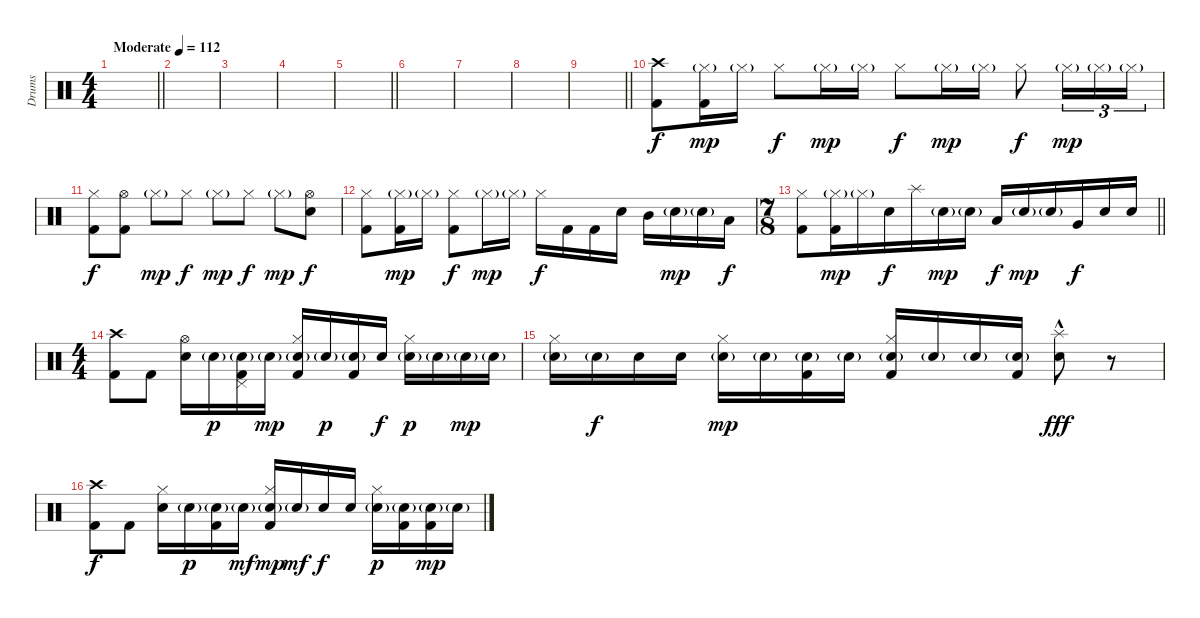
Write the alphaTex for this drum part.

\track ("Drums" "Drums") {instrument percussion}
\staff {score}
\articulation defaults
\ts (4 4)
\tempo (112 "Moderate")
\clef neutral
\barLineRight lightlight
\ks c
|
|
|
|
\barLineRight lightlight
|
|
|
|
\barLineRight lightlight
|
("Crash high (hit)" "Kick (hit) 2").8 ("Hi-Hat (closed)"{g} "Kick (hit) 2").16{dy mp} "Hi-Hat (closed)"{g}.16 "Hi-Hat (closed)".8{dy f} "Hi-Hat (closed)"{g}.16{dy mp} "Hi-Hat (closed)"{g}.16 "Hi-Hat (closed)".8{dy f} "Hi-Hat (closed)"{g}.16{dy mp} "Hi-Hat (closed)"{g}.16 "Hi-Hat (closed)".8{dy f} "Hi-Hat (closed)"{g}.16{tu (3 2) dy mp} "Hi-Hat (closed)"{g}.16{tu (3 2)} "Hi-Hat (closed)"{g}.16{tu (3 2)} |
("Hi-Hat (closed)" "Kick (hit) 2").8{dy f} ("Hi-Hat (open)" "Kick (hit) 2").8 "Hi-Hat (closed)"{g}.8{dy mp} "Hi-Hat (closed)".8{dy f} "Hi-Hat (closed)"{g}.8{dy mp} "Hi-Hat (closed)".8{dy f} "Hi-Hat (closed)"{g}.8{dy mp} ("Hi-Hat (open)" "Electric Snare (hit)").8{dy f} |
("Hi-Hat (closed)" "Kick (hit) 2").8 ("Hi-Hat (closed)"{g} "Kick (hit) 2").16{dy mp} "Hi-Hat (closed)"{g}.16 ("Hi-Hat (closed)" "Kick (hit) 2").8{dy f} "Hi-Hat (closed)"{g}.16{dy mp} "Hi-Hat (closed)"{g}.16 "Hi-Hat (closed)".16{dy f} "Kick (hit) 2".16 "Kick (hit) 2".16 "Electric Snare (hit)".16 "Mid Tom (hit)".16 "Electric Snare (hit)"{g}.16{dy mp} "Electric Snare (hit)"{g}.16 "Low Tom (hit)".16{dy f} |
\ts (7 8)
\barLineRight lightlight
("Hi-Hat (closed)" "Kick (hit) 2").8 ("Hi-Hat (closed)"{g} "Kick (hit) 2").16{dy mp} "Hi-Hat (closed)"{g}.16 "Electric Snare (hit)".16{dy f} "Splash (hit)".16 "Electric Snare (hit)"{g}.16{dy mp} "Electric Snare (hit)"{g}.16 "Low Tom (hit)".16{dy f} "Electric Snare (hit)"{g}.16{dy mp} "Electric Snare (hit)"{g}.16 "Very Low Tom (hit)".16{dy f} "Electric Snare (hit)".16 "Electric Snare (hit)".16 |
\ts (4 4)
("Crash high (hit)" "Kick (hit) 2").8 "Kick (hit) 2".8 ("Hi-Hat (open)" "Electric Snare (hit)").16 "Electric Snare (hit)"{g}.16{dy p} ("Pedal Hi-Hat (hit)" "Electric Snare (hit)"{g} "Kick (hit) 2").16 "Electric Snare (hit)"{g}.16{dy mp} ("Hi-Hat (closed)" "Electric Snare (hit)"{g} "Kick (hit) 2").16 "Electric Snare (hit)"{g}.16{dy p} ("Electric Snare (hit)"{g} "Kick (hit) 2").16 "Electric Snare (hit)".16{dy f} ("Hi-Hat (closed)" "Electric Snare (hit)"{g}).16{dy p} "Electric Snare (hit)"{g}.16 "Electric Snare (hit)"{g}.16{dy mp} "Electric Snare (hit)"{g}.16 |
("Hi-Hat (closed)" "Electric Snare (hit)"{g}).16 "Electric Snare (hit)"{g}.16{dy f} "Electric Snare (hit)".16 "Electric Snare (hit)".16 ("Hi-Hat (closed)" "Electric Snare (hit)"{g}).16{dy mp} "Electric Snare (hit)"{g}.16 ("Electric Snare (hit)"{g} "Kick (hit) 2").16 "Electric Snare (hit)"{g}.16 ("Hi-Hat (closed)" "Electric Snare (hit)"{g} "Kick (hit) 2").16 "Electric Snare (hit)"{g}.16 "Electric Snare (hit)"{g}.16 ("Electric Snare (hit)"{g} "Kick (hit) 2").16 ("Splash (hit)"{hac} "Electric Snare (hit)").8{dy fff} r.8 |
("Crash high (hit)" "Kick (hit) 2").8{dy f} "Kick (hit) 2".8 ("Hi-Hat (closed)" "Electric Snare (hit)").16 "Electric Snare (hit)"{g}.16{dy p} ("Electric Snare (hit)"{g} "Kick (hit) 2").16 "Electric Snare (hit)"{g}.16{dy mf} ("Hi-Hat (closed)" "Electric Snare (hit)"{g} "Kick (hit) 2").16{dy mp} "Electric Snare (hit)"{g}.16{dy mf} "Electric Snare (hit)".16{dy f} "Electric Snare (hit)".16 ("Hi-Hat (closed)" "Electric Snare (hit)"{g}).16{dy p} ("Electric Snare (hit)"{g} "Kick (hit) 2").16 ("Electric Snare (hit)"{g} "Kick (hit) 2").16{dy mp} "Electric Snare (hit)"{g}.16
